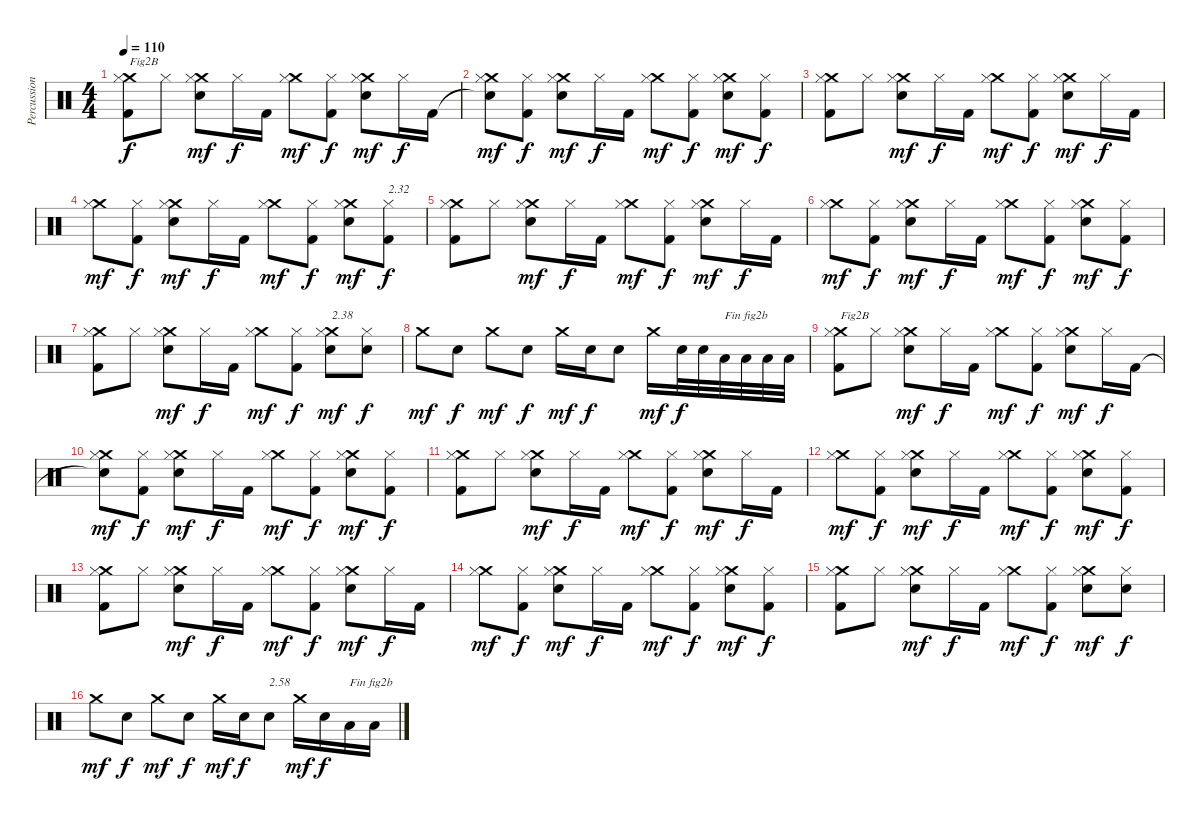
\track ("Percussions" "Percussion") {instrument percussion}
\staff {score}
\articulation defaults
\ts (4 4)
\tempo 110
\clef neutral
\ks c
("Kick (hit) 2" "Crash medium (hit)" "Hi-Hat (closed)").8{txt "Fig2B" dy f} "Hi-Hat (closed)".8 ("Electric Snare (hit)" "Crash medium (hit)" "Hi-Hat (closed)").8{dy mf} "Hi-Hat (closed)".16{dy f} "Kick (hit) 2".16 ("Crash medium (hit)" "Hi-Hat (closed)").8{dy mf} ("Kick (hit) 2" "Hi-Hat (closed)").8{dy f} ("Electric Snare (hit)" "Crash medium (hit)" "Hi-Hat (closed)").8{dy mf} "Hi-Hat (closed)".16{dy f} "Kick (hit) 2".16 |
("Snare (hit)"{t} "Crash medium (hit)" "Hi-Hat (closed)").8{dy mf} ("Kick (hit) 2" "Hi-Hat (closed)").8{dy f} ("Electric Snare (hit)" "Crash medium (hit)" "Hi-Hat (closed)").8{dy mf} "Hi-Hat (closed)".16{dy f} "Kick (hit) 2".16 ("Crash medium (hit)" "Hi-Hat (closed)").8{dy mf} ("Kick (hit) 2" "Hi-Hat (closed)").8{dy f} ("Electric Snare (hit)" "Crash medium (hit)" "Hi-Hat (closed)").8{dy mf} ("Kick (hit) 2" "Hi-Hat (closed)").8{dy f} |
("Kick (hit) 2" "Crash medium (hit)" "Hi-Hat (closed)").8 "Hi-Hat (closed)".8 ("Electric Snare (hit)" "Crash medium (hit)" "Hi-Hat (closed)").8{dy mf} "Hi-Hat (closed)".16{dy f} "Kick (hit) 2".16 ("Crash medium (hit)" "Hi-Hat (closed)").8{dy mf} ("Kick (hit) 2" "Hi-Hat (closed)").8{dy f} ("Electric Snare (hit)" "Crash medium (hit)" "Hi-Hat (closed)").8{dy mf} "Hi-Hat (closed)".16{dy f} "Kick (hit) 2".16 |
("Crash medium (hit)" "Hi-Hat (closed)").8{dy mf} ("Kick (hit) 2" "Hi-Hat (closed)").8{dy f} ("Electric Snare (hit)" "Crash medium (hit)" "Hi-Hat (closed)").8{dy mf} "Hi-Hat (closed)".16{dy f} "Kick (hit) 2".16 ("Crash medium (hit)" "Hi-Hat (closed)").8{dy mf} ("Kick (hit) 2" "Hi-Hat (closed)").8{dy f} ("Electric Snare (hit)" "Crash medium (hit)" "Hi-Hat (closed)").8{dy mf} ("Kick (hit) 2" "Hi-Hat (closed)").8{txt "2.32" dy f} |
("Kick (hit) 2" "Crash medium (hit)" "Hi-Hat (closed)").8 "Hi-Hat (closed)".8 ("Electric Snare (hit)" "Crash medium (hit)" "Hi-Hat (closed)").8{dy mf} "Hi-Hat (closed)".16{dy f} "Kick (hit) 2".16 ("Crash medium (hit)" "Hi-Hat (closed)").8{dy mf} ("Kick (hit) 2" "Hi-Hat (closed)").8{dy f} ("Electric Snare (hit)" "Crash medium (hit)" "Hi-Hat (closed)").8{dy mf} "Hi-Hat (closed)".16{dy f} "Kick (hit) 2".16 |
("Crash medium (hit)" "Hi-Hat (closed)").8{dy mf} ("Kick (hit) 2" "Hi-Hat (closed)").8{dy f} ("Electric Snare (hit)" "Crash medium (hit)" "Hi-Hat (closed)").8{dy mf} "Hi-Hat (closed)".16{dy f} "Kick (hit) 2".16 ("Crash medium (hit)" "Hi-Hat (closed)").8{dy mf} ("Kick (hit) 2" "Hi-Hat (closed)").8{dy f} ("Electric Snare (hit)" "Crash medium (hit)" "Hi-Hat (closed)").8{dy mf} ("Kick (hit) 2" "Hi-Hat (closed)").8{dy f} |
("Kick (hit) 2" "Crash medium (hit)" "Hi-Hat (closed)").8 "Hi-Hat (closed)".8 ("Electric Snare (hit)" "Crash medium (hit)" "Hi-Hat (closed)").8{dy mf} "Hi-Hat (closed)".16{dy f} "Kick (hit) 2".16 ("Crash medium (hit)" "Hi-Hat (closed)").8{dy mf} ("Kick (hit) 2" "Hi-Hat (closed)").8{dy f} ("Electric Snare (hit)" "Crash medium (hit)" "Hi-Hat (closed)").8{txt "2.38" dy mf} ("Electric Snare (hit)" "Hi-Hat (closed)").8{dy f} |
"Crash medium (hit)".8{dy mf} "Electric Snare (hit)".8{dy f} "Crash medium (hit)".8{dy mf} "Electric Snare (hit)".8{dy f} "Crash medium (hit)".16{dy mf} "Electric Snare (hit)".16{dy f} "Electric Snare (hit)".8 "Crash medium (hit)".16{dy mf} "Electric Snare (hit)".32{dy f} "Electric Snare (hit)".32 "Low Floor Tom (hit)".32{txt "Fin fig2b"} "Low Floor Tom (hit)".32 "Low Floor Tom (hit)".32 "Low Floor Tom (hit)".32 |
("Kick (hit) 2" "Crash medium (hit)" "Hi-Hat (closed)").8{txt "Fig2B"} "Hi-Hat (closed)".8 ("Electric Snare (hit)" "Crash medium (hit)" "Hi-Hat (closed)").8{dy mf} "Hi-Hat (closed)".16{dy f} "Kick (hit) 2".16 ("Crash medium (hit)" "Hi-Hat (closed)").8{dy mf} ("Kick (hit) 2" "Hi-Hat (closed)").8{dy f} ("Electric Snare (hit)" "Crash medium (hit)" "Hi-Hat (closed)").8{dy mf} "Hi-Hat (closed)".16{dy f} "Kick (hit) 2".16 |
("Snare (hit)"{t} "Crash medium (hit)" "Hi-Hat (closed)").8{dy mf} ("Kick (hit) 2" "Hi-Hat (closed)").8{dy f} ("Electric Snare (hit)" "Crash medium (hit)" "Hi-Hat (closed)").8{dy mf} "Hi-Hat (closed)".16{dy f} "Kick (hit) 2".16 ("Crash medium (hit)" "Hi-Hat (closed)").8{dy mf} ("Kick (hit) 2" "Hi-Hat (closed)").8{dy f} ("Electric Snare (hit)" "Crash medium (hit)" "Hi-Hat (closed)").8{dy mf} ("Kick (hit) 2" "Hi-Hat (closed)").8{dy f} |
("Kick (hit) 2" "Crash medium (hit)" "Hi-Hat (closed)").8 "Hi-Hat (closed)".8 ("Electric Snare (hit)" "Crash medium (hit)" "Hi-Hat (closed)").8{dy mf} "Hi-Hat (closed)".16{dy f} "Kick (hit) 2".16 ("Crash medium (hit)" "Hi-Hat (closed)").8{dy mf} ("Kick (hit) 2" "Hi-Hat (closed)").8{dy f} ("Electric Snare (hit)" "Crash medium (hit)" "Hi-Hat (closed)").8{dy mf} "Hi-Hat (closed)".16{dy f} "Kick (hit) 2".16 |
("Crash medium (hit)" "Hi-Hat (closed)").8{dy mf} ("Kick (hit) 2" "Hi-Hat (closed)").8{dy f} ("Electric Snare (hit)" "Crash medium (hit)" "Hi-Hat (closed)").8{dy mf} "Hi-Hat (closed)".16{dy f} "Kick (hit) 2".16 ("Crash medium (hit)" "Hi-Hat (closed)").8{dy mf} ("Kick (hit) 2" "Hi-Hat (closed)").8{dy f} ("Electric Snare (hit)" "Crash medium (hit)" "Hi-Hat (closed)").8{dy mf} ("Kick (hit) 2" "Hi-Hat (closed)").8{dy f} |
("Kick (hit) 2" "Crash medium (hit)" "Hi-Hat (closed)").8 "Hi-Hat (closed)".8 ("Electric Snare (hit)" "Crash medium (hit)" "Hi-Hat (closed)").8{dy mf} "Hi-Hat (closed)".16{dy f} "Kick (hit) 2".16 ("Crash medium (hit)" "Hi-Hat (closed)").8{dy mf} ("Kick (hit) 2" "Hi-Hat (closed)").8{dy f} ("Electric Snare (hit)" "Crash medium (hit)" "Hi-Hat (closed)").8{dy mf} "Hi-Hat (closed)".16{dy f} "Kick (hit) 2".16 |
("Crash medium (hit)" "Hi-Hat (closed)").8{dy mf} ("Kick (hit) 2" "Hi-Hat (closed)").8{dy f} ("Electric Snare (hit)" "Crash medium (hit)" "Hi-Hat (closed)").8{dy mf} "Hi-Hat (closed)".16{dy f} "Kick (hit) 2".16 ("Crash medium (hit)" "Hi-Hat (closed)").8{dy mf} ("Kick (hit) 2" "Hi-Hat (closed)").8{dy f} ("Electric Snare (hit)" "Crash medium (hit)" "Hi-Hat (closed)").8{dy mf} ("Kick (hit) 2" "Hi-Hat (closed)").8{dy f} |
("Kick (hit) 2" "Crash medium (hit)" "Hi-Hat (closed)").8 "Hi-Hat (closed)".8 ("Electric Snare (hit)" "Crash medium (hit)" "Hi-Hat (closed)").8{dy mf} "Hi-Hat (closed)".16{dy f} "Kick (hit) 2".16 ("Crash medium (hit)" "Hi-Hat (closed)").8{dy mf} ("Kick (hit) 2" "Hi-Hat (closed)").8{dy f} ("Electric Snare (hit)" "Crash medium (hit)" "Hi-Hat (closed)").8{dy mf} ("Electric Snare (hit)" "Hi-Hat (closed)").8{dy f} |
"Crash medium (hit)".8{dy mf} "Electric Snare (hit)".8{dy f} "Crash medium (hit)".8{dy mf} "Electric Snare (hit)".8{dy f} "Crash medium (hit)".16{dy mf} "Electric Snare (hit)".16{dy f} "Electric Snare (hit)".8{txt "2.58"} "Crash medium (hit)".16{dy mf} "Electric Snare (hit)".16{dy f} "Low Floor Tom (hit)".16{txt "Fin fig2b"} "Low Floor Tom (hit)".16
